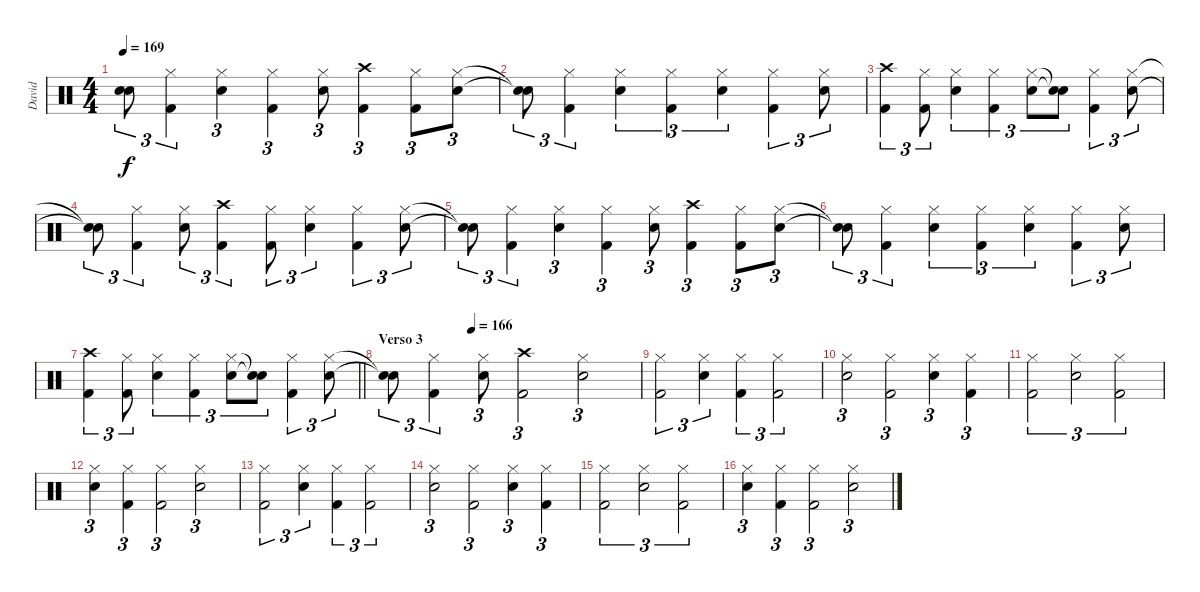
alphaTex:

\track ("David" "David") {instrument percussion}
\staff {score}
\articulation defaults
\ts (4 4)
\tempo 169
\clef neutral
\ks c
("Snare (hit)"{t} "Snare (hit)"{t}).8{tu (3 2) dy f} ("Hi-Hat (closed)" "Kick (hit) 2").4{tu (3 2)} ("Hi-Hat (closed)" "Snare (hit) 2").4{tu (3 2)} ("Hi-Hat (closed)" "Kick (hit) 2").4{tu (3 2)} ("Hi-Hat (closed)" "Snare (hit) 2").8{tu (3 2)} ("Crash high (hit)" "Kick (hit) 2").4{tu (3 2)} ("Hi-Hat (closed)" "Kick (hit) 2").8{tu (3 2)} ("Hi-Hat (closed)" "Snare (hit) 2").8{tu (3 2)} |
("Snare (hit)"{t} "Snare (hit)"{t}).8{tu (3 2)} ("Hi-Hat (closed)" "Kick (hit) 2").4{tu (3 2)} ("Hi-Hat (closed)" "Snare (hit) 2").4{tu (3 2)} ("Hi-Hat (closed)" "Kick (hit) 2").4{tu (3 2)} ("Hi-Hat (closed)" "Snare (hit) 2").4{tu (3 2)} ("Hi-Hat (closed)" "Kick (hit) 2").4{tu (3 2)} ("Hi-Hat (closed)" "Snare (hit) 2").8{tu (3 2)} |
("Crash high (hit)" "Kick (hit) 2").4{tu (3 2)} ("Hi-Hat (closed)" "Kick (hit) 2").8{tu (3 2)} ("Hi-Hat (closed)" "Snare (hit) 2").4{tu (3 2)} ("Hi-Hat (closed)" "Kick (hit) 2").4{tu (3 2)} ("Hi-Hat (closed)" "Snare (hit) 2").8{tu (3 2)} ("Snare (hit)"{t} "Snare (hit)"{t}).8{tu (3 2)} ("Hi-Hat (closed)" "Kick (hit) 2").4{tu (3 2)} ("Hi-Hat (closed)" "Snare (hit) 2").8{tu (3 2)} |
("Snare (hit)"{t} "Snare (hit)"{t}).8{tu (3 2)} ("Hi-Hat (closed)" "Kick (hit) 2").4{tu (3 2)} ("Hi-Hat (closed)" "Snare (hit) 2").8{tu (3 2)} ("Crash high (hit)" "Kick (hit) 2").4{tu (3 2)} ("Hi-Hat (closed)" "Kick (hit) 2").8{tu (3 2)} ("Hi-Hat (closed)" "Snare (hit) 2").4{tu (3 2)} ("Hi-Hat (closed)" "Kick (hit) 2").4{tu (3 2)} ("Hi-Hat (closed)" "Snare (hit) 2").8{tu (3 2)} |
("Snare (hit)"{t} "Snare (hit)"{t}).8{tu (3 2)} ("Hi-Hat (closed)" "Kick (hit) 2").4{tu (3 2)} ("Hi-Hat (closed)" "Snare (hit) 2").4{tu (3 2)} ("Hi-Hat (closed)" "Kick (hit) 2").4{tu (3 2)} ("Hi-Hat (closed)" "Snare (hit) 2").8{tu (3 2)} ("Crash high (hit)" "Kick (hit) 2").4{tu (3 2)} ("Hi-Hat (closed)" "Kick (hit) 2").8{tu (3 2)} ("Hi-Hat (closed)" "Snare (hit) 2").8{tu (3 2)} |
("Snare (hit)"{t} "Snare (hit)"{t}).8{tu (3 2)} ("Hi-Hat (closed)" "Kick (hit) 2").4{tu (3 2)} ("Hi-Hat (closed)" "Snare (hit) 2").4{tu (3 2)} ("Hi-Hat (closed)" "Kick (hit) 2").4{tu (3 2)} ("Hi-Hat (closed)" "Snare (hit) 2").4{tu (3 2)} ("Hi-Hat (closed)" "Kick (hit) 2").4{tu (3 2)} ("Hi-Hat (closed)" "Snare (hit) 2").8{tu (3 2)} |
\barLineRight lightlight
("Crash high (hit)" "Kick (hit) 2").4{tu (3 2)} ("Hi-Hat (closed)" "Kick (hit) 2").8{tu (3 2)} ("Hi-Hat (closed)" "Snare (hit) 2").4{tu (3 2)} ("Hi-Hat (closed)" "Kick (hit) 2").4{tu (3 2)} ("Hi-Hat (closed)" "Snare (hit) 2").8{tu (3 2)} ("Snare (hit)"{t} "Snare (hit)"{t}).8{tu (3 2)} ("Hi-Hat (closed)" "Kick (hit) 2").4{tu (3 2)} ("Hi-Hat (closed)" "Snare (hit) 2").8{tu (3 2)} |
\section ("" "Verso 3")
\tempo (166 0.3333333333333333)
("Snare (hit)"{t} "Snare (hit)"{t}).8{tu (3 2)} ("Hi-Hat (closed)" "Kick (hit) 2").4{tu (3 2)} ("Hi-Hat (closed)" "Snare (hit) 2").8{tu (3 2)} ("Crash high (hit)" "Kick (hit) 2").2{tu (3 2)} ("Hi-Hat (closed)" "Snare (hit) 2").2{tu (3 2)} |
("Hi-Hat (closed)" "Kick (hit) 2").2{tu (3 2)} ("Hi-Hat (closed)" "Snare (hit) 2").4{tu (3 2)} ("Hi-Hat (closed)" "Kick (hit) 2").4{tu (3 2)} ("Hi-Hat (closed)" "Kick (hit) 2").2{tu (3 2)} |
("Hi-Hat (closed)" "Snare (hit) 2").2{tu (3 2)} ("Hi-Hat (closed)" "Kick (hit) 2").2{tu (3 2)} ("Hi-Hat (closed)" "Snare (hit) 2").4{tu (3 2)} ("Hi-Hat (closed)" "Kick (hit) 2").4{tu (3 2)} |
("Hi-Hat (closed)" "Kick (hit) 2").2{tu (3 2)} ("Hi-Hat (closed)" "Snare (hit) 2").2{tu (3 2)} ("Hi-Hat (closed)" "Kick (hit) 2").2{tu (3 2)} |
("Hi-Hat (closed)" "Snare (hit) 2").4{tu (3 2)} ("Hi-Hat (closed)" "Kick (hit) 2").4{tu (3 2)} ("Hi-Hat (closed)" "Kick (hit) 2").2{tu (3 2)} ("Hi-Hat (closed)" "Snare (hit) 2").2{tu (3 2)} |
("Hi-Hat (closed)" "Kick (hit) 2").2{tu (3 2)} ("Hi-Hat (closed)" "Snare (hit) 2").4{tu (3 2)} ("Hi-Hat (closed)" "Kick (hit) 2").4{tu (3 2)} ("Hi-Hat (closed)" "Kick (hit) 2").2{tu (3 2)} |
("Hi-Hat (closed)" "Snare (hit) 2").2{tu (3 2)} ("Hi-Hat (closed)" "Kick (hit) 2").2{tu (3 2)} ("Hi-Hat (closed)" "Snare (hit) 2").4{tu (3 2)} ("Hi-Hat (closed)" "Kick (hit) 2").4{tu (3 2)} |
("Hi-Hat (closed)" "Kick (hit) 2").2{tu (3 2)} ("Hi-Hat (closed)" "Snare (hit) 2").2{tu (3 2)} ("Hi-Hat (closed)" "Kick (hit) 2").2{tu (3 2)} |
("Hi-Hat (closed)" "Snare (hit) 2").4{tu (3 2)} ("Hi-Hat (closed)" "Kick (hit) 2").4{tu (3 2)} ("Hi-Hat (closed)" "Kick (hit) 2").2{tu (3 2)} ("Hi-Hat (closed)" "Snare (hit) 2").2{tu (3 2)}
